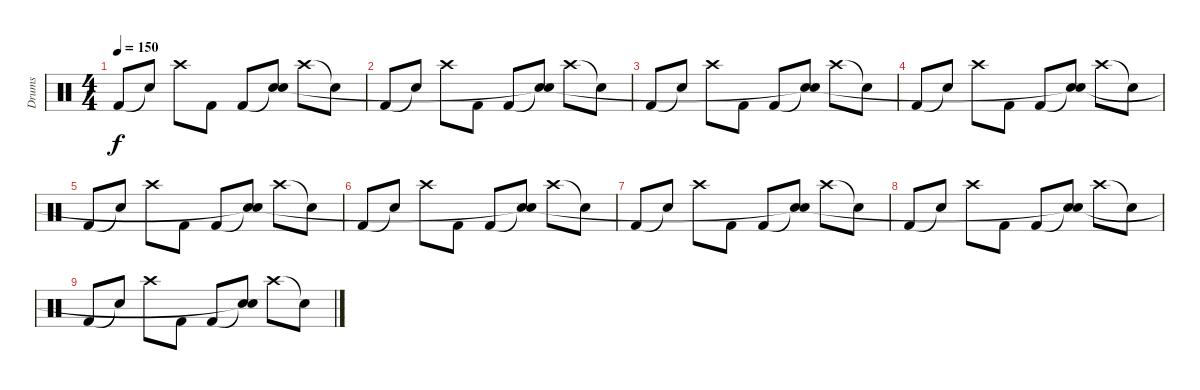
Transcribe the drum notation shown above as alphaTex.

\track ("Drums" "Drums") {instrument percussion}
\staff {score}
\articulation defaults
\ts (4 4)
\tempo 150
\clef neutral
\ks c "Kick (hit) 2".8{dy f} "Snare (hit)"{t}.8 "Crash high (hit)".8 "Kick (hit) 2".8 "Kick (hit) 2".8
("Snare (hit)"{t} "Snare (hit)"{t}).8 "Crash high (hit)".8 "Snare (hit)"{t}.8 |
"Kick (hit) 2".8 "Snare (hit)"{t}.8 "Crash high (hit)".8 "Kick (hit) 2".8 "Kick (hit) 2".8 ("Snare (hit)"{t} "Snare (hit)"{t}).8 "Crash high (hit)".8 "Snare (hit)"{t}.8 |
"Kick (hit) 2".8 "Snare (hit)"{t}.8 "Crash high (hit)".8 "Kick (hit) 2".8 "Kick (hit) 2".8 ("Snare (hit)"{t} "Snare (hit)"{t}).8 "Crash high (hit)".8 "Snare (hit)"{t}.8 |
"Kick (hit) 2".8 "Snare (hit)"{t}.8 "Crash high (hit)".8 "Kick (hit) 2".8 "Kick (hit) 2".8 ("Snare (hit)"{t} "Snare (hit)"{t}).8 "Crash high (hit)".8 "Snare (hit)"{t}.8 |
"Kick (hit) 2".8 "Snare (hit)"{t}.8 "Crash high (hit)".8 "Kick (hit) 2".8 "Kick (hit) 2".8 ("Snare (hit)"{t} "Snare (hit)"{t}).8 "Crash high (hit)".8 "Snare (hit)"{t}.8 |
"Kick (hit) 2".8 "Snare (hit)"{t}.8 "Crash high (hit)".8 "Kick (hit) 2".8 "Kick (hit) 2".8 ("Snare (hit)"{t} "Snare (hit)"{t}).8 "Crash high (hit)".8 "Snare (hit)"{t}.8 |
"Kick (hit) 2".8 "Snare (hit)"{t}.8 "Crash high (hit)".8 "Kick (hit) 2".8 "Kick (hit) 2".8 ("Snare (hit)"{t} "Snare (hit)"{t}).8 "Crash high (hit)".8 "Snare (hit)"{t}.8 |
"Kick (hit) 2".8 "Snare (hit)"{t}.8 "Crash high (hit)".8 "Kick (hit) 2".8 "Kick (hit) 2".8 ("Snare (hit)"{t} "Snare (hit)"{t}).8 "Crash high (hit)".8 "Snare (hit)"{t}.8 |
"Kick (hit) 2".8 "Snare (hit)"{t}.8 "Crash high (hit)".8 "Kick (hit) 2".8 "Kick (hit) 2".8 ("Snare (hit)"{t} "Snare (hit)"{t}).8 "Crash high (hit)".8 "Snare (hit)"{t}.8
